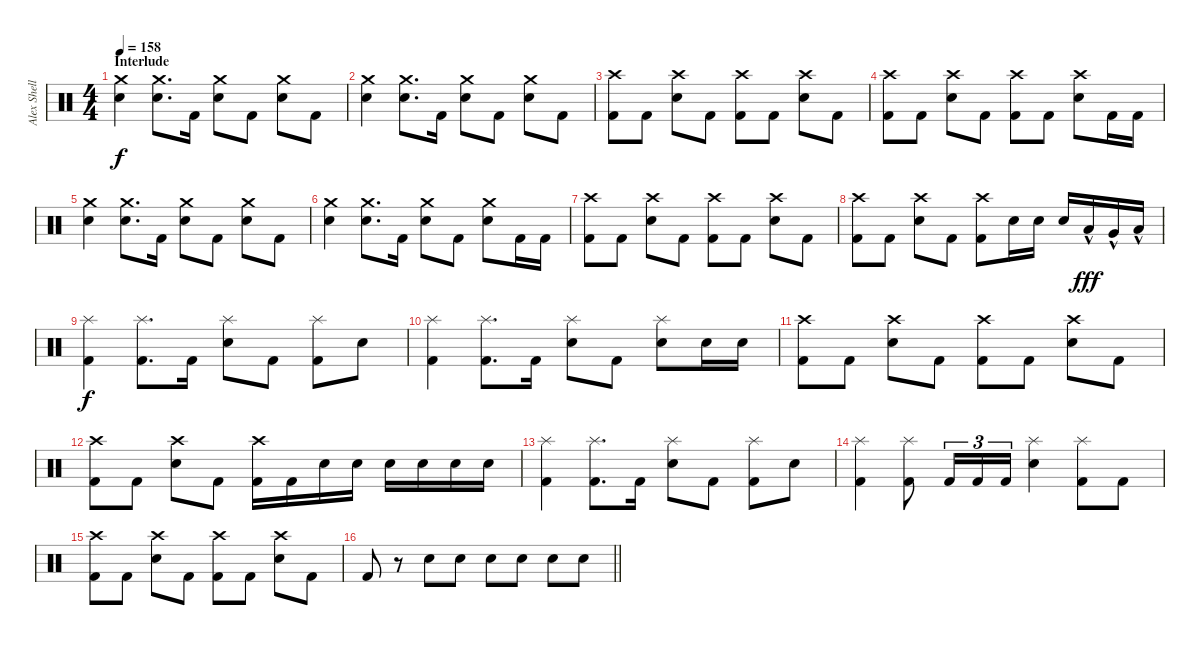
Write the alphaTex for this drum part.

\track ("Alex Shellnut" "Alex Shell") {instrument percussion}
\staff {score}
\articulation defaults
\ts (4 4)
\section ("" "Interlude")
\tempo 158
\clef neutral
\ks c
("Crash medium (hit)" "Electric Snare (hit)").4{dy f} ("Crash medium (hit)" "Electric Snare (hit)").8{d} "Kick (hit) 2".16 ("Crash medium (hit)" "Electric Snare (hit)").8 "Kick (hit) 2".8 ("Crash medium (hit)" "Electric Snare (hit)").8 "Kick (hit) 2".8 |
("Crash medium (hit)" "Electric Snare (hit)").4 ("Crash medium (hit)" "Electric Snare (hit)").8{d} "Kick (hit) 2".16 ("Crash medium (hit)" "Electric Snare (hit)").8 "Kick (hit) 2".8 ("Crash medium (hit)" "Electric Snare (hit)").8 "Kick (hit) 2".8 |
("Crash high (hit)" "Kick (hit) 2").8 "Kick (hit) 2".8 ("Crash high (hit)" "Electric Snare (hit)").8 "Kick (hit) 2".8 ("Crash high (hit)" "Kick (hit) 2").8 "Kick (hit) 2".8 ("Crash high (hit)" "Electric Snare (hit)").8 "Kick (hit) 2".8 |
("Crash high (hit)" "Kick (hit) 2").8 "Kick (hit) 2".8 ("Crash high (hit)" "Electric Snare (hit)").8 "Kick (hit) 2".8 ("Crash high (hit)" "Kick (hit) 2").8 "Kick (hit) 2".8 ("Crash high (hit)" "Electric Snare (hit)").8 "Kick (hit) 2".16 "Kick (hit) 2".16 |
("Crash medium (hit)" "Electric Snare (hit)").4 ("Crash medium (hit)" "Electric Snare (hit)").8{d} "Kick (hit) 2".16 ("Crash medium (hit)" "Electric Snare (hit)").8 "Kick (hit) 2".8 ("Crash medium (hit)" "Electric Snare (hit)").8 "Kick (hit) 2".8 |
("Crash medium (hit)" "Electric Snare (hit)").4 ("Crash medium (hit)" "Electric Snare (hit)").8{d} "Kick (hit) 2".16 ("Crash medium (hit)" "Electric Snare (hit)").8 "Kick (hit) 2".8 ("Crash medium (hit)" "Electric Snare (hit)").8 "Kick (hit) 2".16 "Kick (hit) 2".16 |
("Crash high (hit)" "Kick (hit) 2").8 "Kick (hit) 2".8 ("Crash high (hit)" "Electric Snare (hit)").8 "Kick (hit) 2".8 ("Crash high (hit)" "Kick (hit) 2").8 "Kick (hit) 2".8 ("Crash high (hit)" "Electric Snare (hit)").8 "Kick (hit) 2".8 |
("Crash high (hit)" "Kick (hit) 2").8 "Kick (hit) 2".8 ("Crash high (hit)" "Electric Snare (hit)").8 "Kick (hit) 2".8 ("Crash high (hit)" "Kick (hit) 2").8 "Snare (hit) 2".16 "Snare (hit) 2".16 "Electric Snare (hit)".16 "Low Tom (hit)"{hac}.16{dy fff} "Very Low Tom (hit)"{hac}.16 "Low Floor Tom (hit)"{hac}.16 |
("Splash (hit)" "Kick (hit) 2").4{dy f} ("Splash (hit)" "Kick (hit) 2").8{d} "Kick (hit) 2".16 ("Splash (hit)" "Snare (hit) 2").8 "Kick (hit) 2".8 ("Splash (hit)" "Kick (hit) 2").8 "Snare (hit) 2".8 |
("Splash (hit)" "Kick (hit) 2").4 ("Splash (hit)" "Kick (hit) 2").8{d} "Kick (hit) 2".16 ("Splash (hit)" "Snare (hit) 2").8 "Kick (hit) 2".8 ("Splash (hit)" "Electric Snare (hit)").8 "Snare (hit) 2".16 "Snare (hit) 2".16 |
("Crash high (hit)" "Kick (hit) 2").8 "Kick (hit) 2".8 ("Crash high (hit)" "Electric Snare (hit)").8 "Kick (hit) 2".8 ("Crash high (hit)" "Kick (hit) 2").8 "Kick (hit) 2".8 ("Crash high (hit)" "Electric Snare (hit)").8 "Kick (hit) 2".8 |
("Crash high (hit)" "Kick (hit) 2").8 "Kick (hit) 2".8 ("Crash high (hit)" "Electric Snare (hit)").8 "Kick (hit) 2".8 ("Crash high (hit)" "Kick (hit) 2").16 "Kick (hit) 2".16 "Snare (hit) 2".16 "Snare (hit) 2".16 "Electric Snare (hit)".16 "Electric Snare (hit)".16 "Snare (hit) 2".16 "Snare (hit) 2".16 |
("Splash (hit)" "Kick (hit) 2").4 ("Splash (hit)" "Kick (hit) 2").8{d} "Kick (hit) 2".16 ("Splash (hit)" "Snare (hit) 2").8 "Kick (hit) 2".8 ("Splash (hit)" "Kick (hit) 2").8 "Snare (hit) 2".8 |
("Splash (hit)" "Kick (hit) 2").4 ("Splash (hit)" "Kick (hit) 2").8 "Kick (hit) 2".16{tu (3 2)} "Kick (hit) 2".16{tu (3 2)} "Kick (hit) 2".16{tu (3 2)} ("Splash (hit)" "Snare (hit) 2").4 ("Splash (hit)" "Kick (hit) 2").8 "Kick (hit) 2".8 |
("Crash high (hit)" "Kick (hit) 2").8 "Kick (hit) 2".8 ("Crash high (hit)" "Electric Snare (hit)").8 "Kick (hit) 2".8 ("Crash high (hit)" "Kick (hit) 2").8 "Kick (hit) 2".8 ("Crash high (hit)" "Electric Snare (hit)").8 "Kick (hit) 2".8 |
\barLineRight lightlight "Kick (hit) 2".8
r.8{volume 10} "Electric Snare (hit)".8{volume 16} "Electric Snare (hit)".8 "Electric Snare (hit)".8 "Electric Snare (hit)".8 "Electric Snare (hit)".8 "Electric Snare (hit)".8
